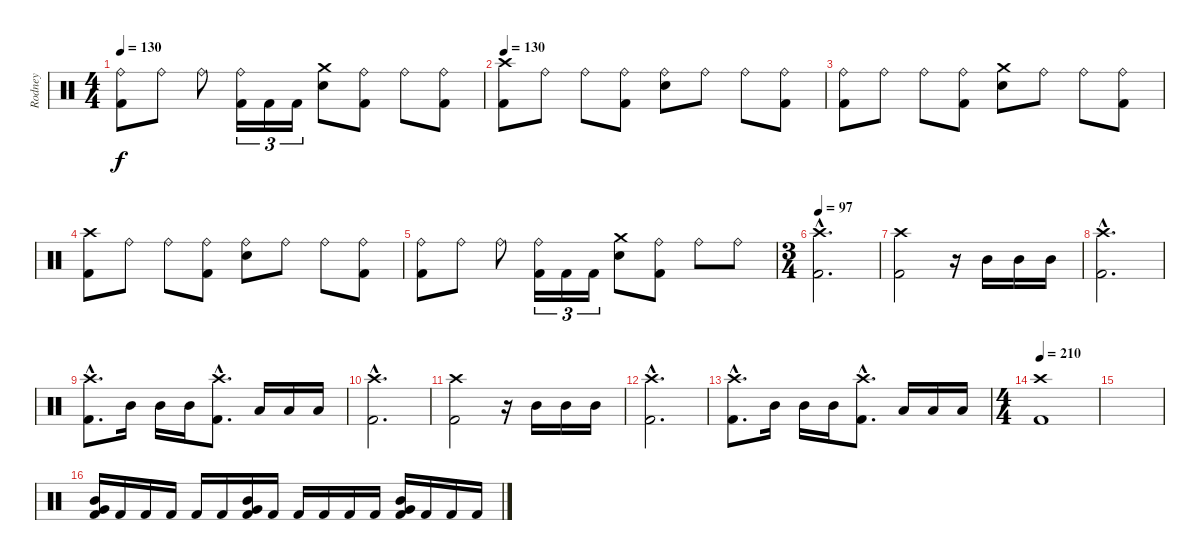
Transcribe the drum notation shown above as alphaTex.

\track ("Rodney" "Rodney") {instrument percussion}
\staff {score}
\articulation defaults
\ts (4 4)
\tempo 130
\clef neutral
\ks c
("Ride (bell)" "Kick (hit) 2").8{dy f} "Ride (bell)".8 "Ride (bell)".8 ("Ride (bell)" "Kick (hit) 2").16{tu (3 2)} "Kick (hit) 2".16{tu (3 2)} "Kick (hit) 2".16{tu (3 2)} ("Crash medium (hit)" "Snare (hit) 2").8 ("Ride (bell)" "Kick (hit) 2").8 "Ride (bell)".8 ("Ride (bell)" "Kick (hit) 2").8 |
\tempo 130
("Crash high (hit)" "Kick (hit) 2").8 "Ride (bell)".8 "Ride (bell)".8 ("Ride (bell)" "Kick (hit) 2").8 ("Ride (bell)" "Snare (hit) 2").8 "Ride (bell)".8 "Ride (bell)".8 ("Ride (bell)" "Kick (hit) 2").8 |
("Ride (bell)" "Kick (hit) 2").8 "Ride (bell)".8 "Ride (bell)".8 ("Ride (bell)" "Kick (hit) 2").8 ("Crash medium (hit)" "Snare (hit) 2").8 "Ride (bell)".8 "Ride (bell)".8 ("Ride (bell)" "Kick (hit) 2").8 |
("Crash high (hit)" "Kick (hit) 2").8 "Ride (bell)".8 "Ride (bell)".8 ("Ride (bell)" "Kick (hit) 2").8 ("Ride (bell)" "Snare (hit) 2").8 "Ride (bell)".8 "Ride (bell)".8 ("Ride (bell)" "Kick (hit) 2").8 |
("Ride (bell)" "Kick (hit) 2").8 "Ride (bell)".8 "Ride (bell)".8 ("Ride (bell)" "Kick (hit) 2").16{tu (3 2)} "Kick (hit) 2".16{tu (3 2)} "Kick (hit) 2".16{tu (3 2)} ("Crash medium (hit)" "Snare (hit) 2").8 ("Ride (bell)" "Kick (hit) 2").8 "Ride (bell)".8 "Ride (bell)".8 |
\ts (3 4)
\tempo 97
("Crash high (hit)"{hac} "Kick (hit) 2"{hac}).2{d} |
("Crash high (hit)" "Kick (hit) 2").2 r.16 "Mid Tom (hit)".16 "Mid Tom (hit)".16 "Mid Tom (hit)".16 |
("Crash high (hit)"{hac} "Kick (hit) 2"{hac}).2{d} |
("Crash high (hit)"{hac} "Kick (hit) 2"{hac}).8{d} "Mid Tom (hit)".16 "Mid Tom (hit)".16 "Mid Tom (hit)".16 ("Crash high (hit)"{hac} "Kick (hit) 2"{hac}).8{d} "Low Tom (hit)".16 "Low Tom (hit)".16 "Low Tom (hit)".16 |
("Crash high (hit)"{hac} "Kick (hit) 2"{hac}).2{d} |
("Crash high (hit)" "Kick (hit) 2").2 r.16 "Mid Tom (hit)".16 "Mid Tom (hit)".16 "Mid Tom (hit)".16 |
("Crash high (hit)"{hac} "Kick (hit) 2"{hac}).2{d} |
("Crash high (hit)"{hac} "Kick (hit) 2"{hac}).8{d} "Mid Tom (hit)".16 "Mid Tom (hit)".16 "Mid Tom (hit)".16 ("Crash high (hit)"{hac} "Kick (hit) 2"{hac}).8{d} "Low Tom (hit)".16 "Low Tom (hit)".16 "Low Tom (hit)".16 |
\ts (4 4)
\tempo 210
("Crash high (hit)" "Kick (hit) 2").1 |
|
("Mid Tom (hit)" "Very Low Tom (hit)" "Kick (hit) 2").16 "Kick (hit) 2".16 "Kick (hit) 2".16 "Kick (hit) 2".16 "Kick (hit) 2".16 "Kick (hit) 2".16 ("Mid Tom (hit)" "Very Low Tom (hit)" "Kick (hit) 2").16 "Kick (hit) 2".16 "Kick (hit) 2".16 "Kick (hit) 2".16 "Kick (hit) 2".16 "Kick (hit) 2".16 ("Mid Tom (hit)" "Very Low Tom (hit)" "Kick (hit) 2").16 "Kick (hit) 2".16 "Kick (hit) 2".16 "Kick (hit) 2".16
